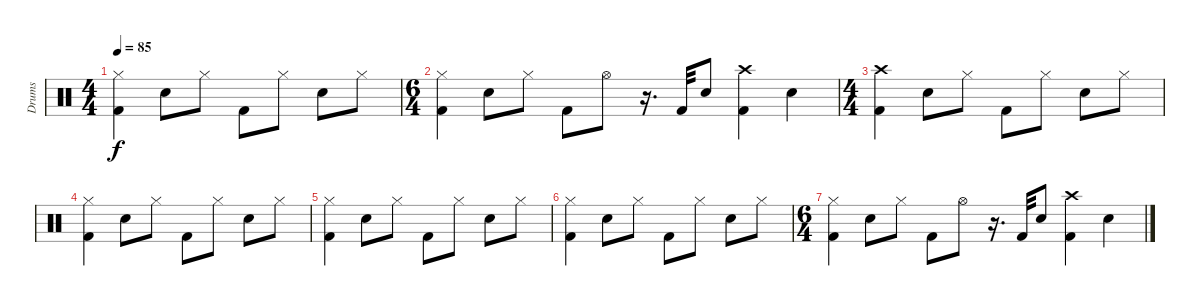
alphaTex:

\track ("Drums" "Drums") {instrument percussion}
\staff {score}
\articulation defaults
\ts (4 4)
\tempo 85
\clef neutral
\ks c
("Kick (hit) 2" "Hi-Hat (closed)").4{dy f} "Snare (hit) 2".8 "Hi-Hat (closed)".8 "Kick (hit) 2".8 "Hi-Hat (closed)".8 "Snare (hit) 2".8 "Hi-Hat (closed)".8 |
\ts (6 4)
("Kick (hit) 2" "Hi-Hat (closed)").4 "Snare (hit) 2".8 "Hi-Hat (closed)".8 "Kick (hit) 2".8 "Hi-Hat (open)".8 r.16{d} "Kick (hit) 2".32 "Snare (hit) 2".8 ("Kick (hit) 2" "Crash high (hit)").4 "Snare (hit) 2".4 |
\ts (4 4)
("Kick (hit) 2" "Crash high (hit)").4 "Snare (hit) 2".8 "Hi-Hat (closed)".8 "Kick (hit) 2".8 "Hi-Hat (closed)".8 "Snare (hit) 2".8 "Hi-Hat (closed)".8 |
("Kick (hit) 2" "Hi-Hat (closed)").4 "Snare (hit) 2".8 "Hi-Hat (closed)".8 "Kick (hit) 2".8 "Hi-Hat (closed)".8 "Snare (hit) 2".8 "Hi-Hat (closed)".8 |
("Kick (hit) 2" "Hi-Hat (closed)").4 "Snare (hit) 2".8 "Hi-Hat (closed)".8 "Kick (hit) 2".8 "Hi-Hat (closed)".8 "Snare (hit) 2".8 "Hi-Hat (closed)".8 |
("Kick (hit) 2" "Hi-Hat (closed)").4{volume 0} "Snare (hit) 2".8 "Hi-Hat (closed)".8 "Kick (hit) 2".8 "Hi-Hat (closed)".8 "Snare (hit) 2".8 "Hi-Hat (closed)".8 |
\ts (6 4)
("Kick (hit) 2" "Hi-Hat (closed)").4 "Snare (hit) 2".8 "Hi-Hat (closed)".8 "Kick (hit) 2".8 "Hi-Hat (open)".8 r.16{d} "Kick (hit) 2".32 "Snare (hit) 2".8 ("Kick (hit) 2" "Crash high (hit)").4 "Snare (hit) 2".4
